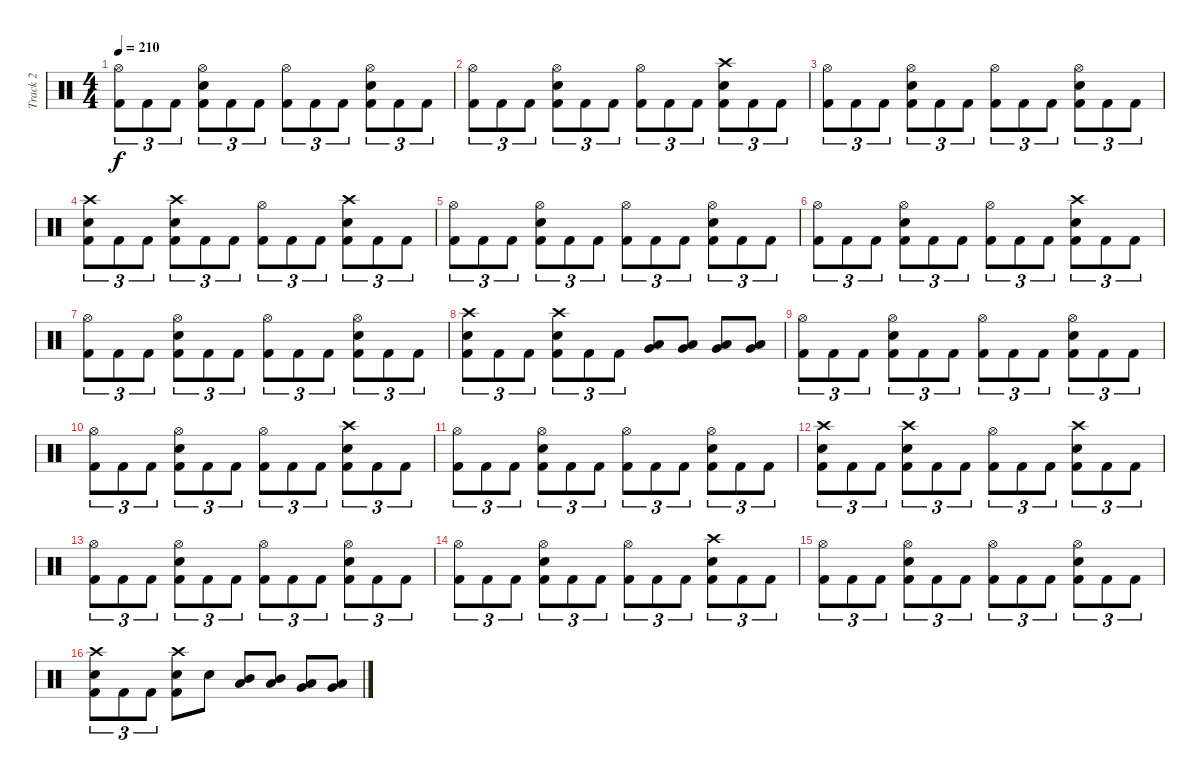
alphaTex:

\track ("Track 2" "Track 2") {instrument percussion}
\staff {score}
\articulation defaults
\ts (4 4)
\tempo 210
\clef neutral
\ks c
("Hi-Hat (open)" "Kick (hit) 2").8{tu (3 2) dy f} "Kick (hit) 2".8{tu (3 2)} "Kick (hit) 2".8{tu (3 2)} ("Hi-Hat (open)" "Snare (hit) 2" "Kick (hit) 2").8{tu (3 2)} "Kick (hit) 2".8{tu (3 2)} "Kick (hit) 2".8{tu (3 2)} ("Hi-Hat (open)" "Kick (hit) 2").8{tu (3 2)} "Kick (hit) 2".8{tu (3 2)} "Kick (hit) 2".8{tu (3 2)} ("Hi-Hat (open)" "Snare (hit) 2" "Kick (hit) 2").8{tu (3 2)} "Kick (hit) 2".8{tu (3 2)} "Kick (hit) 2".8{tu (3 2)} |
("Hi-Hat (open)" "Kick (hit) 2").8{tu (3 2)} "Kick (hit) 2".8{tu (3 2)} "Kick (hit) 2".8{tu (3 2)} ("Hi-Hat (open)" "Snare (hit) 2" "Kick (hit) 2").8{tu (3 2)} "Kick (hit) 2".8{tu (3 2)} "Kick (hit) 2".8{tu (3 2)} ("Hi-Hat (open)" "Kick (hit) 2").8{tu (3 2)} "Kick (hit) 2".8{tu (3 2)} "Kick (hit) 2".8{tu (3 2)} ("Crash high (hit)" "Snare (hit) 2" "Kick (hit) 2").8{tu (3 2)} "Kick (hit) 2".8{tu (3 2)} "Kick (hit) 2".8{tu (3 2)} |
("Hi-Hat (open)" "Kick (hit) 2").8{tu (3 2)} "Kick (hit) 2".8{tu (3 2)} "Kick (hit) 2".8{tu (3 2)} ("Hi-Hat (open)" "Snare (hit) 2" "Kick (hit) 2").8{tu (3 2)} "Kick (hit) 2".8{tu (3 2)} "Kick (hit) 2".8{tu (3 2)} ("Hi-Hat (open)" "Kick (hit) 2").8{tu (3 2)} "Kick (hit) 2".8{tu (3 2)} "Kick (hit) 2".8{tu (3 2)} ("Hi-Hat (open)" "Snare (hit) 2" "Kick (hit) 2").8{tu (3 2)} "Kick (hit) 2".8{tu (3 2)} "Kick (hit) 2".8{tu (3 2)} |
("Crash high (hit)" "Snare (hit) 2" "Kick (hit) 2").8{tu (3 2)} "Kick (hit) 2".8{tu (3 2)} "Kick (hit) 2".8{tu (3 2)} ("Crash high (hit)" "Snare (hit) 2" "Kick (hit) 2").8{tu (3 2)} "Kick (hit) 2".8{tu (3 2)} "Kick (hit) 2".8{tu (3 2)} ("Hi-Hat (open)" "Kick (hit) 2").8{tu (3 2)} "Kick (hit) 2".8{tu (3 2)} "Kick (hit) 2".8{tu (3 2)} ("Crash high (hit)" "Snare (hit) 2" "Kick (hit) 2").8{tu (3 2)} "Kick (hit) 2".8{tu (3 2)} "Kick (hit) 2".8{tu (3 2)} |
("Hi-Hat (open)" "Kick (hit) 2").8{tu (3 2)} "Kick (hit) 2".8{tu (3 2)} "Kick (hit) 2".8{tu (3 2)} ("Hi-Hat (open)" "Snare (hit) 2" "Kick (hit) 2").8{tu (3 2)} "Kick (hit) 2".8{tu (3 2)} "Kick (hit) 2".8{tu (3 2)} ("Hi-Hat (open)" "Kick (hit) 2").8{tu (3 2)} "Kick (hit) 2".8{tu (3 2)} "Kick (hit) 2".8{tu (3 2)} ("Hi-Hat (open)" "Snare (hit) 2" "Kick (hit) 2").8{tu (3 2)} "Kick (hit) 2".8{tu (3 2)} "Kick (hit) 2".8{tu (3 2)} |
("Hi-Hat (open)" "Kick (hit) 2").8{tu (3 2)} "Kick (hit) 2".8{tu (3 2)} "Kick (hit) 2".8{tu (3 2)} ("Hi-Hat (open)" "Snare (hit) 2" "Kick (hit) 2").8{tu (3 2)} "Kick (hit) 2".8{tu (3 2)} "Kick (hit) 2".8{tu (3 2)} ("Hi-Hat (open)" "Kick (hit) 2").8{tu (3 2)} "Kick (hit) 2".8{tu (3 2)} "Kick (hit) 2".8{tu (3 2)} ("Crash high (hit)" "Snare (hit) 2" "Kick (hit) 2").8{tu (3 2)} "Kick (hit) 2".8{tu (3 2)} "Kick (hit) 2".8{tu (3 2)} |
("Hi-Hat (open)" "Kick (hit) 2").8{tu (3 2)} "Kick (hit) 2".8{tu (3 2)} "Kick (hit) 2".8{tu (3 2)} ("Hi-Hat (open)" "Snare (hit) 2" "Kick (hit) 2").8{tu (3 2)} "Kick (hit) 2".8{tu (3 2)} "Kick (hit) 2".8{tu (3 2)} ("Hi-Hat (open)" "Kick (hit) 2").8{tu (3 2)} "Kick (hit) 2".8{tu (3 2)} "Kick (hit) 2".8{tu (3 2)} ("Hi-Hat (open)" "Snare (hit) 2" "Kick (hit) 2").8{tu (3 2)} "Kick (hit) 2".8{tu (3 2)} "Kick (hit) 2".8{tu (3 2)} |
("Crash high (hit)" "Snare (hit) 2" "Kick (hit) 2").8{tu (3 2)} "Kick (hit) 2".8{tu (3 2)} "Kick (hit) 2".8{tu (3 2)} ("Crash high (hit)" "Snare (hit) 2" "Kick (hit) 2").8{tu (3 2)} "Kick (hit) 2".8{tu (3 2)} "Kick (hit) 2".8{tu (3 2)} ("Very Low Tom (hit)" "Low Floor Tom (hit)").8 ("Very Low Tom (hit)" "Low Floor Tom (hit)").8 ("Low Tom (hit)" "Very Low Tom (hit)").8 ("Low Tom (hit)" "Very Low Tom (hit)").8 |
("Hi-Hat (open)" "Kick (hit) 2").8{tu (3 2)} "Kick (hit) 2".8{tu (3 2)} "Kick (hit) 2".8{tu (3 2)} ("Hi-Hat (open)" "Snare (hit) 2" "Kick (hit) 2").8{tu (3 2)} "Kick (hit) 2".8{tu (3 2)} "Kick (hit) 2".8{tu (3 2)} ("Hi-Hat (open)" "Kick (hit) 2").8{tu (3 2)} "Kick (hit) 2".8{tu (3 2)} "Kick (hit) 2".8{tu (3 2)} ("Hi-Hat (open)" "Snare (hit) 2" "Kick (hit) 2").8{tu (3 2)} "Kick (hit) 2".8{tu (3 2)} "Kick (hit) 2".8{tu (3 2)} |
("Hi-Hat (open)" "Kick (hit) 2").8{tu (3 2)} "Kick (hit) 2".8{tu (3 2)} "Kick (hit) 2".8{tu (3 2)} ("Hi-Hat (open)" "Snare (hit) 2" "Kick (hit) 2").8{tu (3 2)} "Kick (hit) 2".8{tu (3 2)} "Kick (hit) 2".8{tu (3 2)} ("Hi-Hat (open)" "Kick (hit) 2").8{tu (3 2)} "Kick (hit) 2".8{tu (3 2)} "Kick (hit) 2".8{tu (3 2)} ("Crash high (hit)" "Snare (hit) 2" "Kick (hit) 2").8{tu (3 2)} "Kick (hit) 2".8{tu (3 2)} "Kick (hit) 2".8{tu (3 2)} |
("Hi-Hat (open)" "Kick (hit) 2").8{tu (3 2)} "Kick (hit) 2".8{tu (3 2)} "Kick (hit) 2".8{tu (3 2)} ("Hi-Hat (open)" "Snare (hit) 2" "Kick (hit) 2").8{tu (3 2)} "Kick (hit) 2".8{tu (3 2)} "Kick (hit) 2".8{tu (3 2)} ("Hi-Hat (open)" "Kick (hit) 2").8{tu (3 2)} "Kick (hit) 2".8{tu (3 2)} "Kick (hit) 2".8{tu (3 2)} ("Hi-Hat (open)" "Snare (hit) 2" "Kick (hit) 2").8{tu (3 2)} "Kick (hit) 2".8{tu (3 2)} "Kick (hit) 2".8{tu (3 2)} |
("Crash high (hit)" "Snare (hit) 2" "Kick (hit) 2").8{tu (3 2)} "Kick (hit) 2".8{tu (3 2)} "Kick (hit) 2".8{tu (3 2)} ("Crash high (hit)" "Snare (hit) 2" "Kick (hit) 2").8{tu (3 2)} "Kick (hit) 2".8{tu (3 2)} "Kick (hit) 2".8{tu (3 2)} ("Hi-Hat (open)" "Kick (hit) 2").8{tu (3 2)} "Kick (hit) 2".8{tu (3 2)} "Kick (hit) 2".8{tu (3 2)} ("Crash high (hit)" "Snare (hit) 2" "Kick (hit) 2").8{tu (3 2)} "Kick (hit) 2".8{tu (3 2)} "Kick (hit) 2".8{tu (3 2)} |
("Hi-Hat (open)" "Kick (hit) 2").8{tu (3 2)} "Kick (hit) 2".8{tu (3 2)} "Kick (hit) 2".8{tu (3 2)} ("Hi-Hat (open)" "Snare (hit) 2" "Kick (hit) 2").8{tu (3 2)} "Kick (hit) 2".8{tu (3 2)} "Kick (hit) 2".8{tu (3 2)} ("Hi-Hat (open)" "Kick (hit) 2").8{tu (3 2)} "Kick (hit) 2".8{tu (3 2)} "Kick (hit) 2".8{tu (3 2)} ("Hi-Hat (open)" "Snare (hit) 2" "Kick (hit) 2").8{tu (3 2)} "Kick (hit) 2".8{tu (3 2)} "Kick (hit) 2".8{tu (3 2)} |
("Hi-Hat (open)" "Kick (hit) 2").8{tu (3 2)} "Kick (hit) 2".8{tu (3 2)} "Kick (hit) 2".8{tu (3 2)} ("Hi-Hat (open)" "Snare (hit) 2" "Kick (hit) 2").8{tu (3 2)} "Kick (hit) 2".8{tu (3 2)} "Kick (hit) 2".8{tu (3 2)} ("Hi-Hat (open)" "Kick (hit) 2").8{tu (3 2)} "Kick (hit) 2".8{tu (3 2)} "Kick (hit) 2".8{tu (3 2)} ("Crash high (hit)" "Snare (hit) 2" "Kick (hit) 2").8{tu (3 2)} "Kick (hit) 2".8{tu (3 2)} "Kick (hit) 2".8{tu (3 2)} |
("Hi-Hat (open)" "Kick (hit) 2").8{tu (3 2)} "Kick (hit) 2".8{tu (3 2)} "Kick (hit) 2".8{tu (3 2)} ("Hi-Hat (open)" "Snare (hit) 2" "Kick (hit) 2").8{tu (3 2)} "Kick (hit) 2".8{tu (3 2)} "Kick (hit) 2".8{tu (3 2)} ("Hi-Hat (open)" "Kick (hit) 2").8{tu (3 2)} "Kick (hit) 2".8{tu (3 2)} "Kick (hit) 2".8{tu (3 2)} ("Hi-Hat (open)" "Snare (hit) 2" "Kick (hit) 2").8{tu (3 2)} "Kick (hit) 2".8{tu (3 2)} "Kick (hit) 2".8{tu (3 2)} |
("Crash high (hit)" "Snare (hit) 2" "Kick (hit) 2").8{tu (3 2)} "Kick (hit) 2".8{tu (3 2)} "Kick (hit) 2".8{tu (3 2)} ("Crash high (hit)" "Snare (hit) 2" "Kick (hit) 2").8 "Snare (hit) 2".8 ("Mid Tom (hit)" "Low Tom (hit)").8 ("Mid Tom (hit)" "Low Tom (hit)").8 ("Low Tom (hit)" "Very Low Tom (hit)").8 ("Low Tom (hit)" "Very Low Tom (hit)").8
